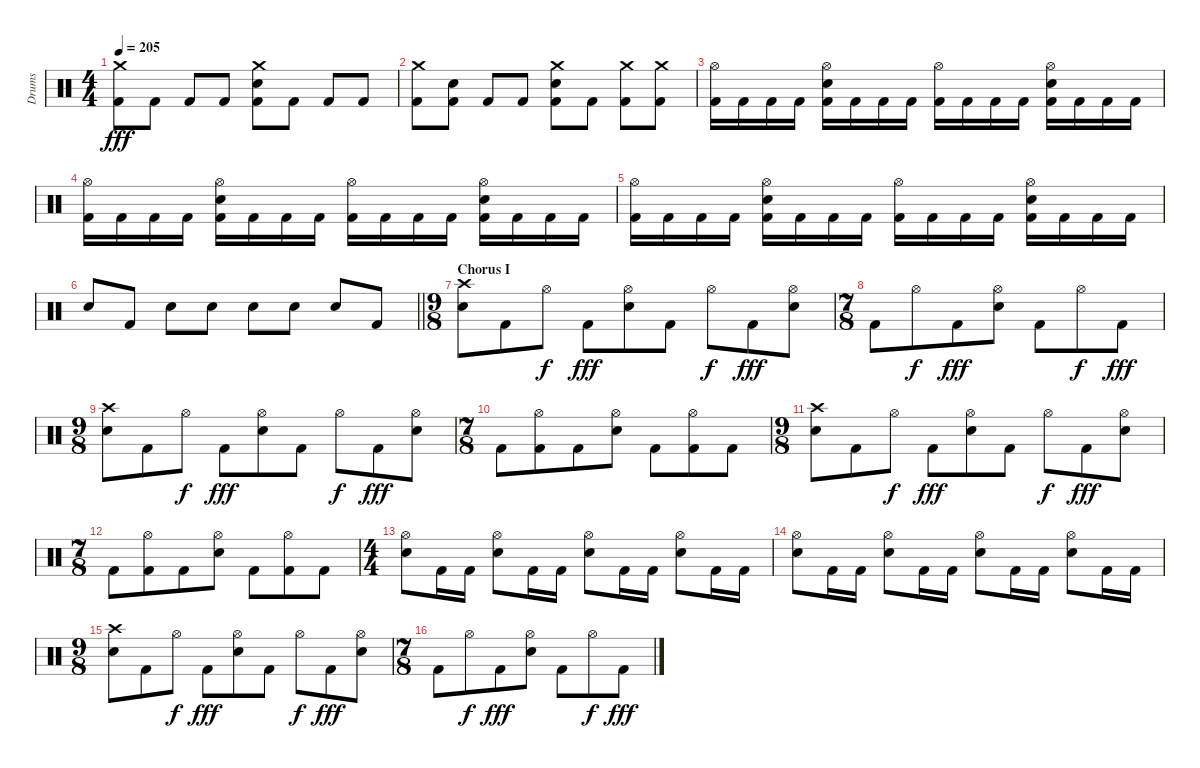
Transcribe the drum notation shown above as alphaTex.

\track ("Drums" "Drums") {instrument percussion}
\staff {score}
\articulation defaults
\ts (4 4)
\tempo 205
\clef neutral
\ks c
("Crash medium (hit)" "Kick (hit) 2").8{dy fff} "Kick (hit) 2".8 "Kick (hit) 2".8 "Kick (hit) 2".8 ("Crash medium (hit)" "Snare (hit) 2" "Kick (hit) 2").8 "Kick (hit) 2".8 "Kick (hit) 2".8 "Kick (hit) 2".8 |
("Crash medium (hit)" "Kick (hit) 2").8 ("Snare (hit) 2" "Kick (hit) 2").8 "Kick (hit) 2".8 "Kick (hit) 2".8 ("Crash medium (hit)" "Snare (hit) 2" "Kick (hit) 2").8 "Kick (hit) 2".8 ("Crash medium (hit)" "Kick (hit) 2").8 ("Crash medium (hit)" "Kick (hit) 2").8 |
("Hi-Hat (open)" "Kick (hit) 2").16 "Kick (hit) 2".16 "Kick (hit) 2".16 "Kick (hit) 2".16 ("Hi-Hat (open)" "Snare (hit) 2" "Kick (hit) 2").16 "Kick (hit) 2".16 "Kick (hit) 2".16 "Kick (hit) 2".16 ("Hi-Hat (open)" "Kick (hit) 2").16 "Kick (hit) 2".16 "Kick (hit) 2".16 "Kick (hit) 2".16 ("Hi-Hat (open)" "Snare (hit) 2" "Kick (hit) 2").16 "Kick (hit) 2".16 "Kick (hit) 2".16 "Kick (hit) 2".16 |
("Hi-Hat (open)" "Kick (hit) 2").16 "Kick (hit) 2".16 "Kick (hit) 2".16 "Kick (hit) 2".16 ("Hi-Hat (open)" "Snare (hit) 2" "Kick (hit) 2").16 "Kick (hit) 2".16 "Kick (hit) 2".16 "Kick (hit) 2".16 ("Hi-Hat (open)" "Kick (hit) 2").16 "Kick (hit) 2".16 "Kick (hit) 2".16 "Kick (hit) 2".16 ("Hi-Hat (open)" "Snare (hit) 2" "Kick (hit) 2").16 "Kick (hit) 2".16 "Kick (hit) 2".16 "Kick (hit) 2".16 |
("Hi-Hat (open)" "Kick (hit) 2").16 "Kick (hit) 2".16 "Kick (hit) 2".16 "Kick (hit) 2".16 ("Hi-Hat (open)" "Snare (hit) 2" "Kick (hit) 2").16 "Kick (hit) 2".16 "Kick (hit) 2".16 "Kick (hit) 2".16 ("Hi-Hat (open)" "Kick (hit) 2").16 "Kick (hit) 2".16 "Kick (hit) 2".16 "Kick (hit) 2".16 ("Hi-Hat (open)" "Snare (hit) 2" "Kick (hit) 2").16 "Kick (hit) 2".16 "Kick (hit) 2".16 "Kick (hit) 2".16 |
\barLineRight lightlight "Snare (hit) 2".8 "Kick (hit) 2".8 "Snare (hit) 2".8 "Snare (hit) 2".8 "Snare (hit) 2".8 "Snare (hit) 2".8 "Snare (hit) 2".8 "Kick (hit) 2".8
|
\ts (9 8)
\section ("" "Chorus I")
("Crash high (hit)" "Snare (hit) 2").8 "Kick (hit) 2".8 "Hi-Hat (open)".8{dy f} "Kick (hit) 2".8{dy fff} ("Hi-Hat (open)" "Snare (hit) 2").8 "Kick (hit) 2".8 "Hi-Hat (open)".8{dy f} "Kick (hit) 2".8{dy fff} ("Hi-Hat (open)" "Snare (hit) 2").8 |
\ts (7 8)
"Kick (hit) 2".8 "Hi-Hat (open)".8{dy f} "Kick (hit) 2".8{dy fff} ("Hi-Hat (open)" "Snare (hit) 2").8 "Kick (hit) 2".8 "Hi-Hat (open)".8{dy f} "Kick (hit) 2".8{dy fff} |
\ts (9 8)
("Crash high (hit)" "Snare (hit) 2").8 "Kick (hit) 2".8 "Hi-Hat (open)".8{dy f} "Kick (hit) 2".8{dy fff} ("Hi-Hat (open)" "Snare (hit) 2").8 "Kick (hit) 2".8 "Hi-Hat (open)".8{dy f} "Kick (hit) 2".8{dy fff} ("Hi-Hat (open)" "Snare (hit) 2").8 |
\ts (7 8)
"Kick (hit) 2".8 ("Hi-Hat (open)" "Kick (hit) 2").8 "Kick (hit) 2".8 ("Hi-Hat (open)" "Snare (hit) 2").8 "Kick (hit) 2".8 ("Hi-Hat (open)" "Kick (hit) 2").8 "Kick (hit) 2".8 |
\ts (9 8)
("Crash high (hit)" "Snare (hit) 2").8 "Kick (hit) 2".8 "Hi-Hat (open)".8{dy f} "Kick (hit) 2".8{dy fff} ("Hi-Hat (open)" "Snare (hit) 2").8 "Kick (hit) 2".8 "Hi-Hat (open)".8{dy f} "Kick (hit) 2".8{dy fff} ("Hi-Hat (open)" "Snare (hit) 2").8 |
\ts (7 8)
"Kick (hit) 2".8 ("Hi-Hat (open)" "Kick (hit) 2").8 "Kick (hit) 2".8 ("Hi-Hat (open)" "Snare (hit) 2").8 "Kick (hit) 2".8 ("Hi-Hat (open)" "Kick (hit) 2").8 "Kick (hit) 2".8 |
\ts (4 4)
("Hi-Hat (open)" "Snare (hit) 2").8 "Kick (hit) 2".16 "Kick (hit) 2".16 ("Hi-Hat (open)" "Snare (hit) 2").8 "Kick (hit) 2".16 "Kick (hit) 2".16 ("Hi-Hat (open)" "Snare (hit) 2").8 "Kick (hit) 2".16 "Kick (hit) 2".16 ("Hi-Hat (open)" "Snare (hit) 2").8 "Kick (hit) 2".16 "Kick (hit) 2".16 |
("Hi-Hat (open)" "Snare (hit) 2").8 "Kick (hit) 2".16 "Kick (hit) 2".16 ("Hi-Hat (open)" "Snare (hit) 2").8 "Kick (hit) 2".16 "Kick (hit) 2".16 ("Hi-Hat (open)" "Snare (hit) 2").8 "Kick (hit) 2".16 "Kick (hit) 2".16 ("Hi-Hat (open)" "Snare (hit) 2").8 "Kick (hit) 2".16 "Kick (hit) 2".16 |
\ts (9 8)
("Crash high (hit)" "Snare (hit) 2").8 "Kick (hit) 2".8 "Hi-Hat (open)".8{dy f} "Kick (hit) 2".8{dy fff} ("Hi-Hat (open)" "Snare (hit) 2").8 "Kick (hit) 2".8 "Hi-Hat (open)".8{dy f} "Kick (hit) 2".8{dy fff} ("Hi-Hat (open)" "Snare (hit) 2").8 |
\ts (7 8)
"Kick (hit) 2".8 "Hi-Hat (open)".8{dy f} "Kick (hit) 2".8{dy fff} ("Hi-Hat (open)" "Snare (hit) 2").8 "Kick (hit) 2".8 "Hi-Hat (open)".8{dy f} "Kick (hit) 2".8{dy fff}
